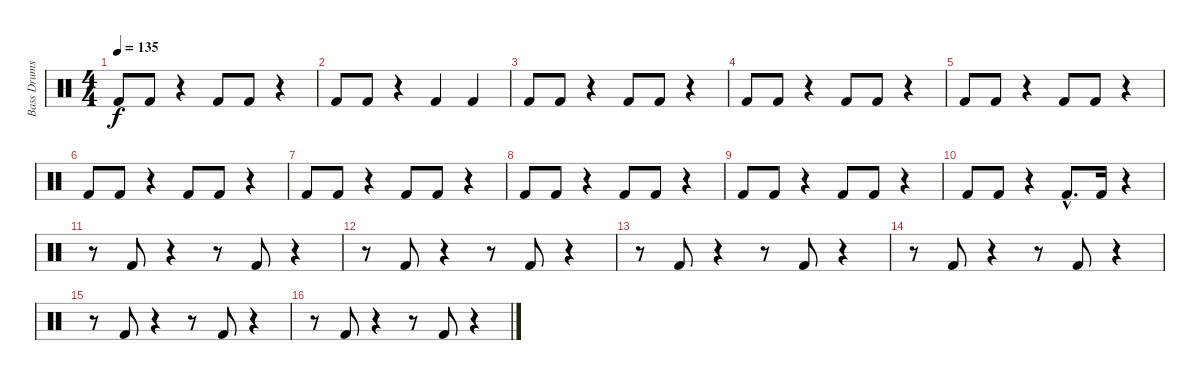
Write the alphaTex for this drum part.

\track ("Bass Drums" "Bass Drums") {instrument percussion}
\staff {score}
\articulation defaults
\ts (4 4)
\tempo 135
\clef neutral
\ks c "Kick (hit) 2".8{dy f} "Kick (hit) 2".8
r.4 "Kick (hit) 2".8 "Kick (hit) 2".8 r.4 |
"Kick (hit) 2".8 "Kick (hit) 2".8 r.4 "Kick (hit) 2".4 "Kick (hit) 2".4 |
"Kick (hit) 2".8 "Kick (hit) 2".8 r.4 "Kick (hit) 2".8 "Kick (hit) 2".8 r.4 |
"Kick (hit) 2".8 "Kick (hit) 2".8 r.4 "Kick (hit) 2".8 "Kick (hit) 2".8 r.4 |
"Kick (hit) 2".8 "Kick (hit) 2".8 r.4 "Kick (hit) 2".8 "Kick (hit) 2".8 r.4 |
"Kick (hit) 2".8 "Kick (hit) 2".8 r.4 "Kick (hit) 2".8 "Kick (hit) 2".8 r.4 |
"Kick (hit) 2".8 "Kick (hit) 2".8 r.4 "Kick (hit) 2".8 "Kick (hit) 2".8 r.4 |
"Kick (hit) 2".8 "Kick (hit) 2".8 r.4 "Kick (hit) 2".8 "Kick (hit) 2".8 r.4 |
"Kick (hit) 2".8 "Kick (hit) 2".8 r.4 "Kick (hit) 2".8 "Kick (hit) 2".8 r.4 |
"Kick (hit) 2".8 "Kick (hit) 2".8 r.4 "Kick (hit) 2"{hac}.8{d} "Kick (hit) 2".16 r.4 |
r.8 "Kick (hit) 2".8 r.4 r.8 "Kick (hit) 2".8 r.4 |
r.8 "Kick (hit) 2".8 r.4 r.8 "Kick (hit) 2".8 r.4 |
r.8 "Kick (hit) 2".8 r.4 r.8 "Kick (hit) 2".8 r.4 |
r.8 "Kick (hit) 2".8 r.4 r.8 "Kick (hit) 2".8 r.4 |
r.8 "Kick (hit) 2".8 r.4 r.8 "Kick (hit) 2".8 r.4 |
r.8 "Kick (hit) 2".8 r.4 r.8 "Kick (hit) 2".8 r.4
